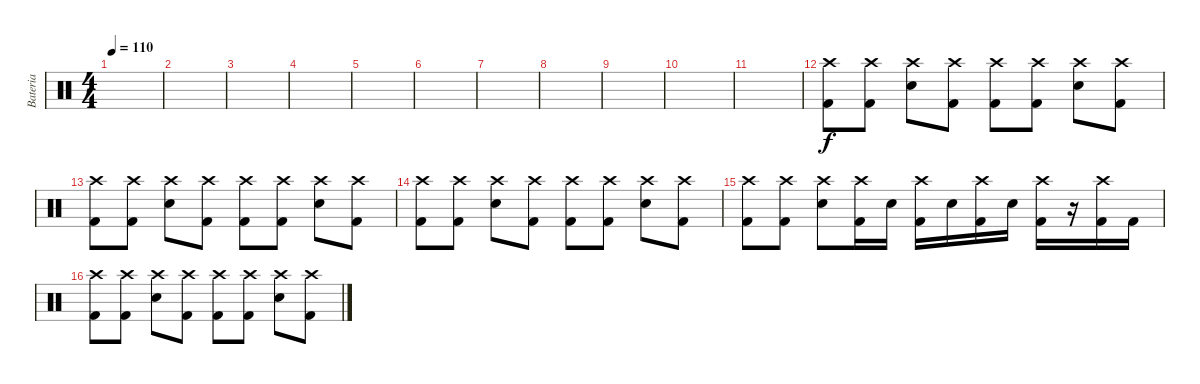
\track ("Bateria" "Bateria") {instrument percussion}
\staff {score}
\articulation defaults
\ts (4 4)
\tempo 110
\clef neutral
\ks c
|
|
|
|
|
|
|
|
|
|
|
("Crash high (hit)" "Kick (hit) 2").8 ("Crash high (hit)" "Kick (hit) 2").8 ("Crash high (hit)" "Snare (hit) 2").8 ("Crash high (hit)" "Kick (hit) 2").8 ("Crash high (hit)" "Kick (hit) 2").8 ("Crash high (hit)" "Kick (hit) 2").8 ("Crash high (hit)" "Snare (hit) 2").8 ("Crash high (hit)" "Kick (hit) 2").8 |
("Crash high (hit)" "Kick (hit) 2").8 ("Crash high (hit)" "Kick (hit) 2").8 ("Crash high (hit)" "Snare (hit) 2").8 ("Crash high (hit)" "Kick (hit) 2").8 ("Crash high (hit)" "Kick (hit) 2").8 ("Crash high (hit)" "Kick (hit) 2").8 ("Crash high (hit)" "Snare (hit) 2").8 ("Crash high (hit)" "Kick (hit) 2").8 |
("Crash high (hit)" "Kick (hit) 2").8 ("Crash high (hit)" "Kick (hit) 2").8 ("Crash high (hit)" "Snare (hit) 2").8 ("Crash high (hit)" "Kick (hit) 2").8 ("Crash high (hit)" "Kick (hit) 2").8 ("Crash high (hit)" "Kick (hit) 2").8 ("Crash high (hit)" "Snare (hit) 2").8 ("Crash high (hit)" "Kick (hit) 2").8 |
("Crash high (hit)" "Kick (hit) 2").8 ("Crash high (hit)" "Kick (hit) 2").8 ("Crash high (hit)" "Snare (hit) 2").8 ("Crash high (hit)" "Kick (hit) 2").16 "Snare (hit) 2".16 ("Crash high (hit)" "Kick (hit) 2").16 "Snare (hit) 2".16 ("Crash high (hit)" "Kick (hit) 2").16 "Snare (hit) 2".16 ("Crash high (hit)" "Kick (hit) 2").16 r.16 ("Crash high (hit)" "Kick (hit) 2").16 "Kick (hit) 2".16 |
("Crash high (hit)" "Kick (hit) 2").8 ("Crash high (hit)" "Kick (hit) 2").8 ("Crash high (hit)" "Snare (hit) 2").8 ("Crash high (hit)" "Kick (hit) 2").8 ("Crash high (hit)" "Kick (hit) 2").8 ("Crash high (hit)" "Kick (hit) 2").8 ("Crash high (hit)" "Snare (hit) 2").8 ("Crash high (hit)" "Kick (hit) 2").8
